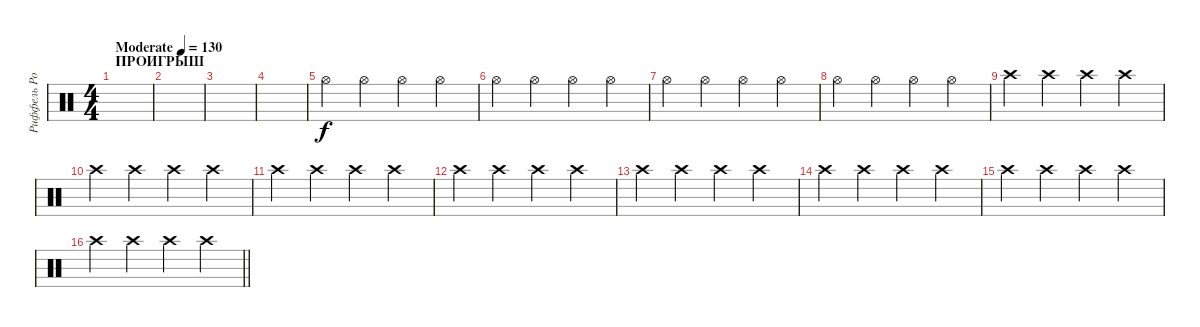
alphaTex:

\track ("Риффель Роман(хэты)" "Риффель Ро") {instrument percussion}
\staff {score}
\articulation defaults
\ts (4 4)
\section ("" "ПРОИГРЫШ")
\tempo (130 "Moderate")
\clef neutral
\ks c
|
|
|
|
"Hi-Hat (open)".4 "Hi-Hat (open)".4 "Hi-Hat (open)".4 "Hi-Hat (open)".4 |
"Hi-Hat (open)".4 "Hi-Hat (open)".4 "Hi-Hat (open)".4 "Hi-Hat (open)".4 |
"Hi-Hat (open)".4 "Hi-Hat (open)".4 "Hi-Hat (open)".4 "Hi-Hat (open)".4 |
"Hi-Hat (open)".4 "Hi-Hat (open)".4 "Hi-Hat (open)".4 "Hi-Hat (open)".4 |
"Crash high (hit)".4 "Crash high (hit)".4 "Crash high (hit)".4 "Crash high (hit)".4 |
"Crash high (hit)".4 "Crash high (hit)".4 "Crash high (hit)".4 "Crash high (hit)".4 |
"Crash high (hit)".4 "Crash high (hit)".4 "Crash high (hit)".4 "Crash high (hit)".4 |
"Crash high (hit)".4 "Crash high (hit)".4 "Crash high (hit)".4 "Crash high (hit)".4 |
"Crash high (hit)".4 "Crash high (hit)".4 "Crash high (hit)".4 "Crash high (hit)".4 |
"Crash high (hit)".4 "Crash high (hit)".4 "Crash high (hit)".4 "Crash high (hit)".4 |
"Crash high (hit)".4 "Crash high (hit)".4 "Crash high (hit)".4 "Crash high (hit)".4 |
\barLineRight lightlight "Crash high (hit)".4 "Crash high (hit)".4 "Crash high (hit)".4 "Crash high (hit)".4
